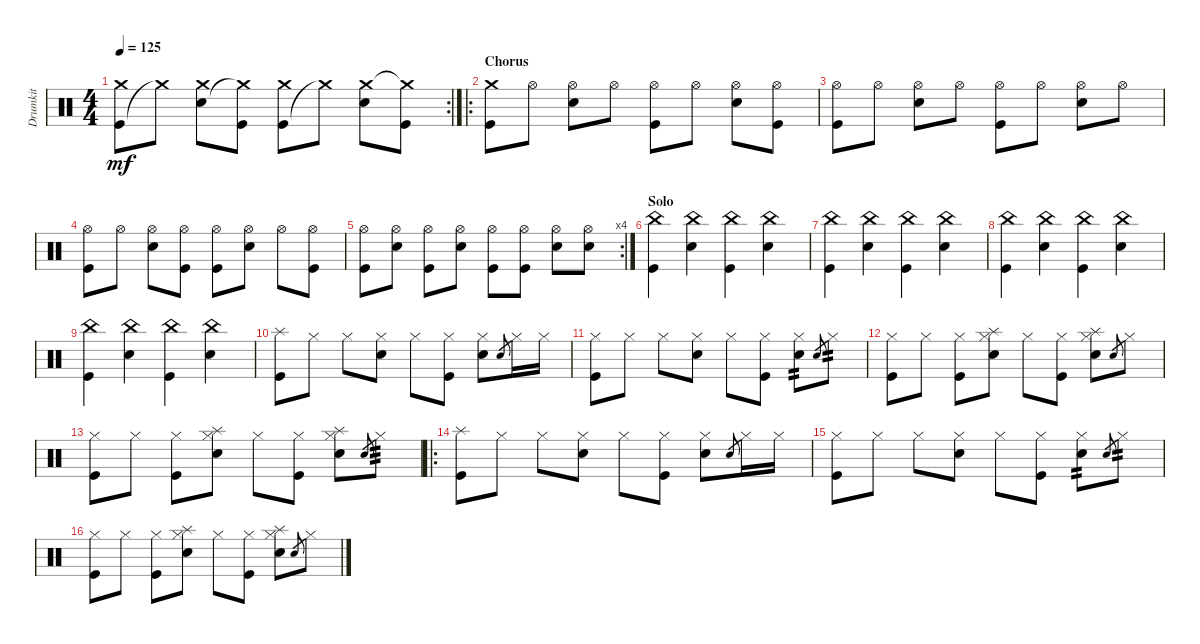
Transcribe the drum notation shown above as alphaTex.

\track ("Drumkit" "Drumkit") {instrument percussion}
\staff {score}
\articulation defaults
\rc 2
\ts (4 4)
\tempo 125
\clef neutral
\ks c
("Kick (hit)" "Crash medium (hit)").8{dy mf} "Crash medium (hit)"{t}.8 ("Snare (hit) 2" "Crash medium (hit)").8 ("Crash medium (hit)"{t} "Kick (hit)").8 ("Kick (hit)" "Crash medium (hit)").8 "Crash medium (hit)"{t}.8 ("Snare (hit) 2" "Crash medium (hit)").8 ("Kick (hit)" "Crash medium (hit)"{t}).8 |
\ro
\section ("" "Chorus")
("Crash medium (hit)" "Kick (hit)").8 "Hi-Hat (open)".8 ("Hi-Hat (open)" "Snare (hit) 2").8 "Hi-Hat (open)".8 ("Hi-Hat (open)" "Kick (hit)").8 "Hi-Hat (open)".8 ("Hi-Hat (open)" "Snare (hit) 2").8 ("Hi-Hat (open)" "Kick (hit)").8 |
("Hi-Hat (open)" "Kick (hit)").8 "Hi-Hat (open)".8 ("Hi-Hat (open)" "Snare (hit) 2").8 "Hi-Hat (open)".8 ("Hi-Hat (open)" "Kick (hit)").8 "Hi-Hat (open)".8 ("Hi-Hat (open)" "Snare (hit) 2").8 "Hi-Hat (open)".8 |
("Hi-Hat (open)" "Kick (hit)").8 "Hi-Hat (open)".8 ("Hi-Hat (open)" "Snare (hit) 2").8 ("Hi-Hat (open)" "Kick (hit)").8 ("Hi-Hat (open)" "Kick (hit)").8 ("Hi-Hat (open)" "Snare (hit) 2").8 "Hi-Hat (open)".8 ("Hi-Hat (open)" "Kick (hit)").8 |
\rc 4
("Hi-Hat (open)" "Kick (hit)").8 ("Hi-Hat (open)" "Snare (hit) 2").8 ("Hi-Hat (open)" "Kick (hit)").8 ("Hi-Hat (open)" "Snare (hit) 2").8 ("Hi-Hat (open)" "Kick (hit)").8 ("Hi-Hat (open)" "Kick (hit)").8 ("Hi-Hat (open)" "Snare (hit) 2").8 ("Hi-Hat (open)" "Snare (hit) 2").8 |
\section ("" "Solo")
("China (hit)" "Kick (hit)").4 ("China (hit)" "Snare (hit) 2").4 ("China (hit)" "Kick (hit)").4 ("China (hit)" "Snare (hit) 2").4 |
("China (hit)" "Kick (hit)").4 ("China (hit)" "Snare (hit) 2").4 ("China (hit)" "Kick (hit)").4 ("China (hit)" "Snare (hit) 2").4 |
("China (hit)" "Kick (hit)").4 ("China (hit)" "Snare (hit) 2").4 ("China (hit)" "Kick (hit)").4 ("China (hit)" "Snare (hit) 2").4 |
("China (hit)" "Kick (hit)").4 ("China (hit)" "Snare (hit) 2").4 ("China (hit)" "Kick (hit)").4 ("China (hit)" "Snare (hit) 2").4 |
("Splash (hit)" "Kick (hit)").8 "Hi-Hat (closed)".8 "Hi-Hat (closed)".8 ("Snare (hit) 2" "Hi-Hat (closed)").8 "Hi-Hat (closed)".8 ("Kick (hit)" "Hi-Hat (closed)").8 ("Snare (hit) 2" "Hi-Hat (closed)").8 "Snare (hit)".8{gr} "Hi-Hat (closed)".16 "Hi-Hat (closed)".16 |
("Kick (hit)" "Hi-Hat (closed)").8 "Hi-Hat (closed)".8 "Hi-Hat (closed)".8 ("Snare (hit) 2" "Hi-Hat (closed)").8 "Hi-Hat (closed)".8 ("Kick (hit)" "Hi-Hat (closed)").8 ("Snare (hit) 2" "Hi-Hat (closed)").8{tp 2} "Snare (hit)".8{gr} "Hi-Hat (closed)".8{tp 2} |
("Kick (hit)" "Hi-Hat (closed)").8 "Hi-Hat (closed)".8 ("Kick (hit)" "Hi-Hat (closed)").8 ("Snare (hit) 2" "Splash (hit)" "Hi-Hat (closed)").8 "Hi-Hat (closed)".8 ("Kick (hit)" "Hi-Hat (closed)").8 ("Snare (hit) 2" "Splash (hit)" "Hi-Hat (closed)").8 "Snare (hit)".8{gr} "Hi-Hat (closed)".8 |
("Kick (hit)" "Hi-Hat (closed)").8 "Hi-Hat (closed)".8 ("Kick (hit)" "Hi-Hat (closed)").8 ("Snare (hit) 2" "Splash (hit)" "Hi-Hat (closed)").8 "Hi-Hat (closed)".8 ("Kick (hit)" "Hi-Hat (closed)").8 ("Snare (hit) 2" "Splash (hit)" "Hi-Hat (closed)").8 "Snare (hit)".8{gr} "Hi-Hat (closed)".8{tp 3} |
\ro
("Splash (hit)" "Kick (hit)").8 "Hi-Hat (closed)".8 "Hi-Hat (closed)".8 ("Snare (hit) 2" "Hi-Hat (closed)").8 "Hi-Hat (closed)".8 ("Kick (hit)" "Hi-Hat (closed)").8 ("Snare (hit) 2" "Hi-Hat (closed)").8 "Snare (hit)".8{gr} "Hi-Hat (closed)".16 "Hi-Hat (closed)".16 |
("Kick (hit)" "Hi-Hat (closed)").8 "Hi-Hat (closed)".8 "Hi-Hat (closed)".8 ("Snare (hit) 2" "Hi-Hat (closed)").8 "Hi-Hat (closed)".8 ("Kick (hit)" "Hi-Hat (closed)").8 ("Snare (hit) 2" "Hi-Hat (closed)").8{tp 2} "Snare (hit)".8{gr} "Hi-Hat (closed)".8{tp 2} |
("Kick (hit)" "Hi-Hat (closed)").8 "Hi-Hat (closed)".8 ("Kick (hit)" "Hi-Hat (closed)").8 ("Snare (hit) 2" "Splash (hit)" "Hi-Hat (closed)").8 "Hi-Hat (closed)".8 ("Kick (hit)" "Hi-Hat (closed)").8 ("Snare (hit) 2" "Splash (hit)" "Hi-Hat (closed)").8 "Snare (hit)".8{gr} "Hi-Hat (closed)".8
